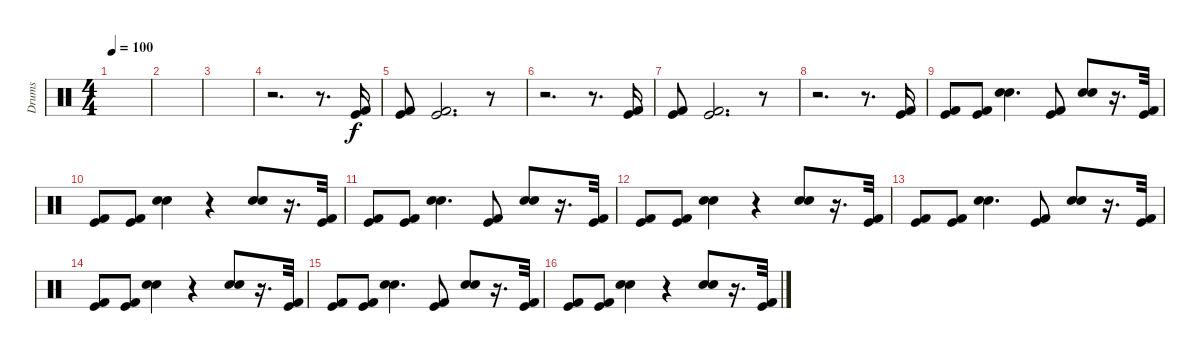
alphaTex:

\track ("Drums" "Drums") {instrument percussion}
\staff {score}
\articulation defaults
\ts (4 4)
\tempo 100
\clef neutral
\ks c
|
|
|
r.2{d} r.8{d} ("Kick (hit)" "Kick (hit) 2").16 |
("Kick (hit)" "Kick (hit) 2").8 ("Kick (hit)" "Kick (hit) 2").2{d} r.8 |
r.2{d} r.8{d} ("Kick (hit)" "Kick (hit) 2").16 |
("Kick (hit)" "Kick (hit) 2").8 ("Kick (hit)" "Kick (hit) 2").2{d} r.8 |
r.2{d} r.8{d} ("Kick (hit)" "Kick (hit) 2").16 |
("Kick (hit)" "Kick (hit) 2").8 ("Kick (hit)" "Kick (hit) 2").8 ("Snare (hit) 2" "Electric Snare (hit)").4{d} ("Kick (hit)" "Kick (hit) 2").8 ("Snare (hit) 2" "Electric Snare (hit)").8 r.16{d} ("Kick (hit)" "Kick (hit) 2").32 |
("Kick (hit)" "Kick (hit) 2").8 ("Kick (hit)" "Kick (hit) 2").8 ("Snare (hit) 2" "Electric Snare (hit)").4 r.4 ("Snare (hit) 2" "Electric Snare (hit)").8 r.16{d} ("Kick (hit)" "Kick (hit) 2").32 |
("Kick (hit)" "Kick (hit) 2").8 ("Kick (hit)" "Kick (hit) 2").8 ("Snare (hit) 2" "Electric Snare (hit)").4{d} ("Kick (hit)" "Kick (hit) 2").8 ("Snare (hit) 2" "Electric Snare (hit)").8 r.16{d} ("Kick (hit)" "Kick (hit) 2").32 |
("Kick (hit)" "Kick (hit) 2").8 ("Kick (hit)" "Kick (hit) 2").8 ("Snare (hit) 2" "Electric Snare (hit)").4 r.4 ("Snare (hit) 2" "Electric Snare (hit)").8 r.16{d} ("Kick (hit)" "Kick (hit) 2").32 |
("Kick (hit)" "Kick (hit) 2").8 ("Kick (hit)" "Kick (hit) 2").8 ("Snare (hit) 2" "Electric Snare (hit)").4{d} ("Kick (hit)" "Kick (hit) 2").8 ("Snare (hit) 2" "Electric Snare (hit)").8 r.16{d} ("Kick (hit)" "Kick (hit) 2").32 |
("Kick (hit)" "Kick (hit) 2").8 ("Kick (hit)" "Kick (hit) 2").8 ("Snare (hit) 2" "Electric Snare (hit)").4 r.4 ("Snare (hit) 2" "Electric Snare (hit)").8 r.16{d} ("Kick (hit)" "Kick (hit) 2").32 |
("Kick (hit)" "Kick (hit) 2").8 ("Kick (hit)" "Kick (hit) 2").8 ("Snare (hit) 2" "Electric Snare (hit)").4{d} ("Kick (hit)" "Kick (hit) 2").8 ("Snare (hit) 2" "Electric Snare (hit)").8 r.16{d} ("Kick (hit)" "Kick (hit) 2").32 |
("Kick (hit)" "Kick (hit) 2").8 ("Kick (hit)" "Kick (hit) 2").8 ("Snare (hit) 2" "Electric Snare (hit)").4 r.4 ("Snare (hit) 2" "Electric Snare (hit)").8 r.16{d} ("Kick (hit)" "Kick (hit) 2").32
